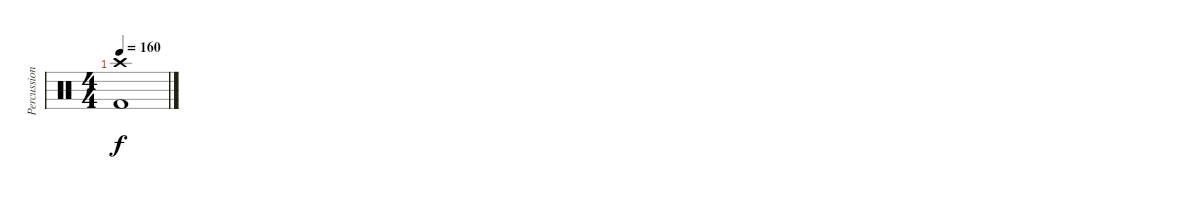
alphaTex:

\track ("Percussion" "Percussion") {instrument percussion}
\staff {score}
\articulation defaults
\ts (4 4)
\tempo 160
\clef neutral
\ks c
("Crash high (hit)" "Kick (hit) 2").1{dy f}
